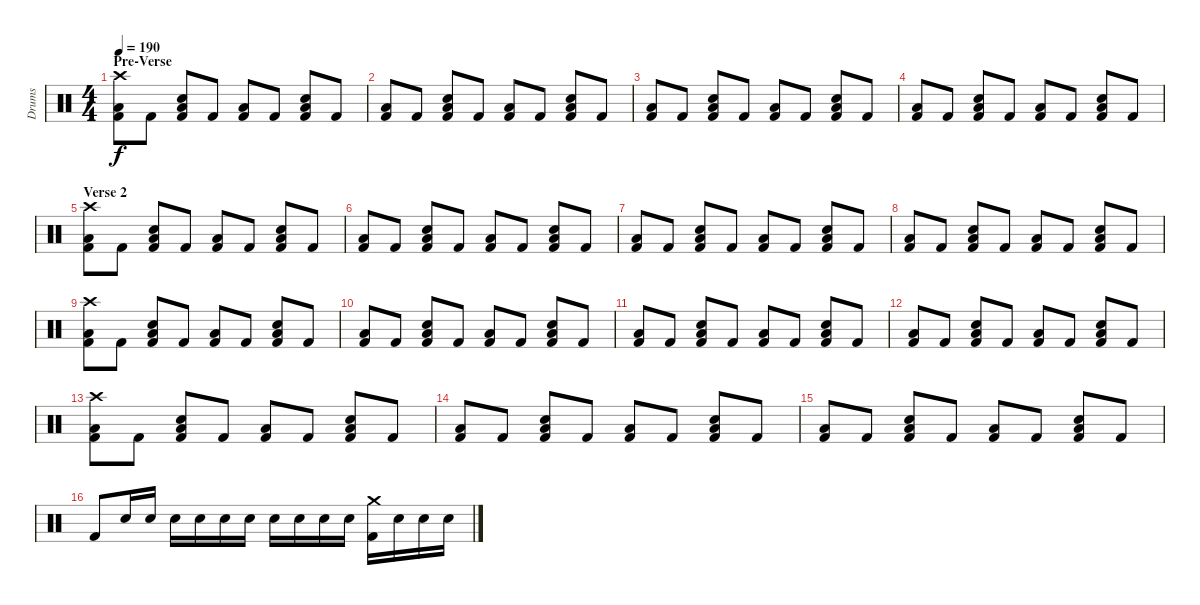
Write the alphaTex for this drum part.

\track ("Drums" "Drums") {instrument percussion}
\staff {score}
\articulation defaults
\ts (4 4)
\section ("" "Pre-Verse")
\tempo 190
\clef neutral
\ks c
("Crash high (hit)" "Low Floor Tom (hit)" "Kick (hit) 2").8{dy f} "Kick (hit) 2".8 ("Low Floor Tom (hit)" "Snare (hit) 2" "Kick (hit) 2").8 "Kick (hit) 2".8 ("Low Floor Tom (hit)" "Kick (hit) 2").8 "Kick (hit) 2".8 ("Low Floor Tom (hit)" "Snare (hit) 2" "Kick (hit) 2").8 "Kick (hit) 2".8 |
("Low Floor Tom (hit)" "Kick (hit) 2").8 "Kick (hit) 2".8 ("Low Floor Tom (hit)" "Snare (hit) 2" "Kick (hit) 2").8 "Kick (hit) 2".8 ("Low Floor Tom (hit)" "Kick (hit) 2").8 "Kick (hit) 2".8 ("Low Floor Tom (hit)" "Snare (hit) 2" "Kick (hit) 2").8 "Kick (hit) 2".8 |
("Low Floor Tom (hit)" "Kick (hit) 2").8 "Kick (hit) 2".8 ("Low Floor Tom (hit)" "Snare (hit) 2" "Kick (hit) 2").8 "Kick (hit) 2".8 ("Low Floor Tom (hit)" "Kick (hit) 2").8 "Kick (hit) 2".8 ("Low Floor Tom (hit)" "Snare (hit) 2" "Kick (hit) 2").8 "Kick (hit) 2".8 |
("Low Floor Tom (hit)" "Kick (hit) 2").8 "Kick (hit) 2".8 ("Low Floor Tom (hit)" "Snare (hit) 2" "Kick (hit) 2").8 "Kick (hit) 2".8 ("Low Floor Tom (hit)" "Kick (hit) 2").8 "Kick (hit) 2".8 ("Low Floor Tom (hit)" "Snare (hit) 2" "Kick (hit) 2").8 "Kick (hit) 2".8 |
\section ("" "Verse 2")
("Crash high (hit)" "Low Floor Tom (hit)" "Kick (hit) 2").8 "Kick (hit) 2".8 ("Low Floor Tom (hit)" "Snare (hit) 2" "Kick (hit) 2").8 "Kick (hit) 2".8 ("Low Floor Tom (hit)" "Kick (hit) 2").8 "Kick (hit) 2".8 ("Low Floor Tom (hit)" "Snare (hit) 2" "Kick (hit) 2").8 "Kick (hit) 2".8 |
("Low Floor Tom (hit)" "Kick (hit) 2").8 "Kick (hit) 2".8 ("Low Floor Tom (hit)" "Snare (hit) 2" "Kick (hit) 2").8 "Kick (hit) 2".8 ("Low Floor Tom (hit)" "Kick (hit) 2").8 "Kick (hit) 2".8 ("Low Floor Tom (hit)" "Snare (hit) 2" "Kick (hit) 2").8 "Kick (hit) 2".8 |
("Low Floor Tom (hit)" "Kick (hit) 2").8 "Kick (hit) 2".8 ("Low Floor Tom (hit)" "Snare (hit) 2" "Kick (hit) 2").8 "Kick (hit) 2".8 ("Low Floor Tom (hit)" "Kick (hit) 2").8 "Kick (hit) 2".8 ("Low Floor Tom (hit)" "Snare (hit) 2" "Kick (hit) 2").8 "Kick (hit) 2".8 |
("Low Floor Tom (hit)" "Kick (hit) 2").8 "Kick (hit) 2".8 ("Low Floor Tom (hit)" "Snare (hit) 2" "Kick (hit) 2").8 "Kick (hit) 2".8 ("Low Floor Tom (hit)" "Kick (hit) 2").8 "Kick (hit) 2".8 ("Low Floor Tom (hit)" "Snare (hit) 2" "Kick (hit) 2").8 "Kick (hit) 2".8 |
("Crash high (hit)" "Low Floor Tom (hit)" "Kick (hit) 2").8 "Kick (hit) 2".8 ("Low Floor Tom (hit)" "Snare (hit) 2" "Kick (hit) 2").8 "Kick (hit) 2".8 ("Low Floor Tom (hit)" "Kick (hit) 2").8 "Kick (hit) 2".8 ("Low Floor Tom (hit)" "Snare (hit) 2" "Kick (hit) 2").8 "Kick (hit) 2".8 |
("Low Floor Tom (hit)" "Kick (hit) 2").8 "Kick (hit) 2".8 ("Low Floor Tom (hit)" "Snare (hit) 2" "Kick (hit) 2").8 "Kick (hit) 2".8 ("Low Floor Tom (hit)" "Kick (hit) 2").8 "Kick (hit) 2".8 ("Low Floor Tom (hit)" "Snare (hit) 2" "Kick (hit) 2").8 "Kick (hit) 2".8 |
("Low Floor Tom (hit)" "Kick (hit) 2").8 "Kick (hit) 2".8 ("Low Floor Tom (hit)" "Snare (hit) 2" "Kick (hit) 2").8 "Kick (hit) 2".8 ("Low Floor Tom (hit)" "Kick (hit) 2").8 "Kick (hit) 2".8 ("Low Floor Tom (hit)" "Snare (hit) 2" "Kick (hit) 2").8 "Kick (hit) 2".8 |
("Low Floor Tom (hit)" "Kick (hit) 2").8 "Kick (hit) 2".8 ("Low Floor Tom (hit)" "Snare (hit) 2" "Kick (hit) 2").8 "Kick (hit) 2".8 ("Low Floor Tom (hit)" "Kick (hit) 2").8 "Kick (hit) 2".8 ("Low Floor Tom (hit)" "Snare (hit) 2" "Kick (hit) 2").8 "Kick (hit) 2".8 |
("Crash high (hit)" "Low Floor Tom (hit)" "Kick (hit) 2").8 "Kick (hit) 2".8 ("Low Floor Tom (hit)" "Snare (hit) 2" "Kick (hit) 2").8 "Kick (hit) 2".8 ("Low Floor Tom (hit)" "Kick (hit) 2").8 "Kick (hit) 2".8 ("Low Floor Tom (hit)" "Snare (hit) 2" "Kick (hit) 2").8 "Kick (hit) 2".8 |
("Low Floor Tom (hit)" "Kick (hit) 2").8 "Kick (hit) 2".8 ("Low Floor Tom (hit)" "Snare (hit) 2" "Kick (hit) 2").8 "Kick (hit) 2".8 ("Low Floor Tom (hit)" "Kick (hit) 2").8 "Kick (hit) 2".8 ("Low Floor Tom (hit)" "Snare (hit) 2" "Kick (hit) 2").8 "Kick (hit) 2".8 |
("Low Floor Tom (hit)" "Kick (hit) 2").8 "Kick (hit) 2".8 ("Low Floor Tom (hit)" "Snare (hit) 2" "Kick (hit) 2").8 "Kick (hit) 2".8 ("Low Floor Tom (hit)" "Kick (hit) 2").8 "Kick (hit) 2".8 ("Low Floor Tom (hit)" "Snare (hit) 2" "Kick (hit) 2").8 "Kick (hit) 2".8 |
"Kick (hit) 2".8 "Snare (hit) 2".16 "Snare (hit) 2".16 "Snare (hit) 2".16 "Snare (hit) 2".16 "Snare (hit) 2".16 "Snare (hit) 2".16 "Snare (hit) 2".16 "Snare (hit) 2".16 "Snare (hit) 2".16 "Snare (hit) 2".16 ("Crash medium (hit)" "Kick (hit) 2").16 "Snare (hit) 2".16 "Snare (hit) 2".16 "Snare (hit) 2".16
